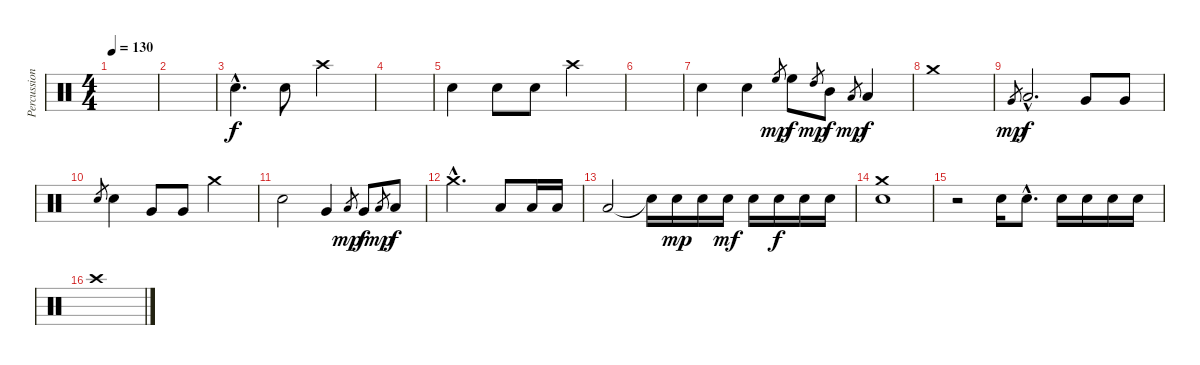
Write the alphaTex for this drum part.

\track ("Percussions" "Percussion") {instrument percussion}
\staff {score}
\articulation defaults
\ts (4 4)
\tempo 130
\clef neutral
\ks c
|
|
"Snare (hit) 2"{hac}.4{d} "Snare (hit) 2".8 "Crash high (hit)".2 |
|
"Snare (hit) 2".4 "Snare (hit) 2".8 "Snare (hit) 2".8 "Crash high (hit)".2 |
|
"Snare (hit) 2".4 "Snare (hit) 2".4 "High Floor Tom (hit)".8{gr dy mp} "High Floor Tom (hit)".8{dy f} "High Tom (hit)".8{gr dy mp} "Mid Tom (hit)".8{dy f} "Low Tom (hit)".8{gr dy mp} "Low Tom (hit)".4{dy f} |
"Crash medium (hit)".1 |
"Very Low Tom (hit)".8{gr dy mp} "Low Tom (hit)"{hac}.2{d dy f} "Very Low Tom (hit)".8 "Very Low Tom (hit)".8 |
"Electric Snare (hit)".8{gr} "Electric Snare (hit)".4 "Very Low Tom (hit)".8 "Very Low Tom (hit)".8 "Crash medium (hit)".2 |
"Electric Snare (hit)".2 "Very Low Tom (hit)".4 "Low Floor Tom (hit)".8{gr dy mp} "Very Low Tom (hit)".8{dy f} "Low Floor Tom (hit)".8{gr dy mp} "Low Tom (hit)".8{dy f} |
"Crash medium (hit)"{hac}.2{d} "Low Floor Tom (hit)".8 "Low Floor Tom (hit)".16 "Low Floor Tom (hit)".16 |
"Low Floor Tom (hit)".2 "Snare (hit)"{t}.16 "Snare (hit) 2".16{dy mp} "Electric Snare (hit)".16 "Snare (hit) 2".16{dy mf} "Electric Snare (hit)".16 "Snare (hit) 2".16{dy f} "Electric Snare (hit)".16 "Electric Snare (hit)".16 |
("Electric Snare (hit)" "Crash medium (hit)").1 |
r.2 "Snare (hit) 2".16 "Electric Snare (hit)"{hac}.8{d} "Snare (hit) 2".16 "Electric Snare (hit)".16 "Electric Snare (hit)".16 "Electric Snare (hit)".16 |
"Crash high (hit)".1
